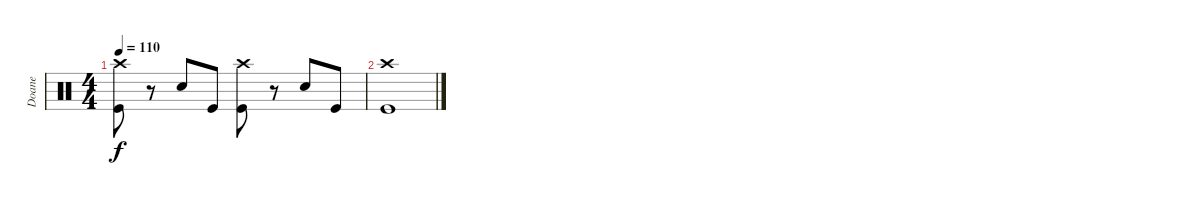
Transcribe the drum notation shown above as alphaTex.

\track ("Doane" "Doane") {instrument percussion}
\staff {score}
\articulation defaults
\ts (4 4)
\tempo 110
\clef neutral
\ks c
("Crash high (hit)" "Kick (hit)").8{dy f} r.8 "Snare (hit) 2".8 "Kick (hit)".8 ("Crash high (hit)" "Kick (hit)").8 r.8 "Snare (hit) 2".8 "Kick (hit)".8 |
("Crash high (hit)" "Kick (hit)").1
